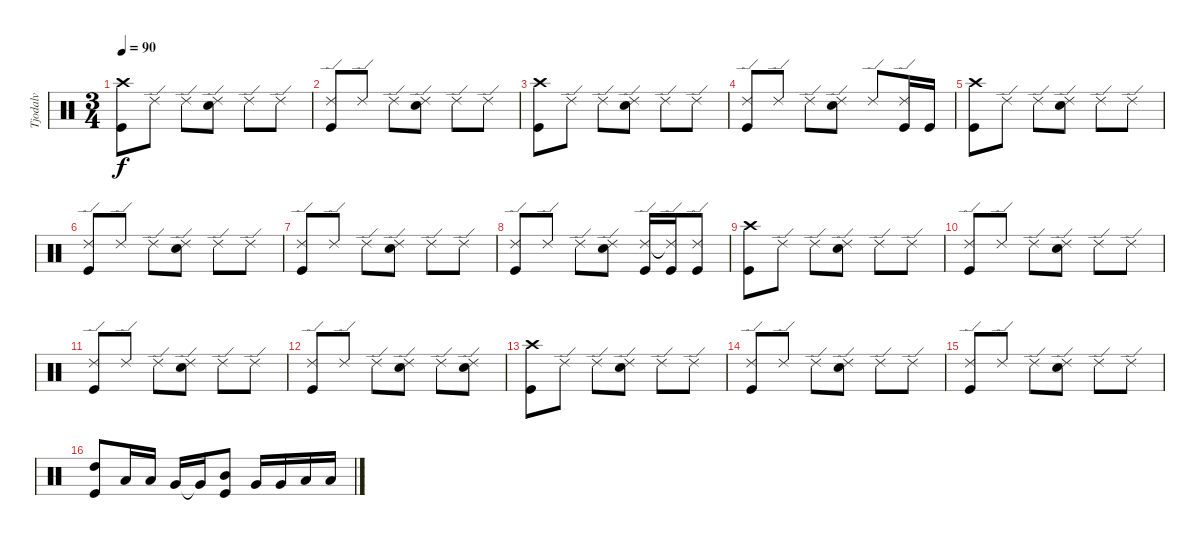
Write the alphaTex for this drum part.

\track ("Tjodalv" "Tjodalv") {instrument percussion}
\staff {score}
\articulation defaults
\ts (3 4)
\tempo 90
\clef neutral
\ks c
("Crash high (hit)" "Kick (hit)").8{dy f} "Ride (edge) 2".8 "Ride (edge) 2".8 ("Ride (edge) 2" "Snare (hit) 2").8 "Ride (edge) 2".8 "Ride (edge) 2".8 |
("Ride (edge) 2" "Kick (hit)").8 "Ride (edge) 2".8 "Ride (edge) 2".8 ("Ride (edge) 2" "Snare (hit) 2").8 "Ride (edge) 2".8 "Ride (edge) 2".8 |
("Crash high (hit)" "Kick (hit)").8 "Ride (edge) 2".8 "Ride (edge) 2".8 ("Ride (edge) 2" "Snare (hit) 2").8 "Ride (edge) 2".8 "Ride (edge) 2".8 |
("Ride (edge) 2" "Kick (hit)").8 "Ride (edge) 2".8 "Ride (edge) 2".8 ("Ride (edge) 2" "Snare (hit) 2").8 "Ride (edge) 2".8 ("Ride (edge) 2" "Kick (hit)").16 "Kick (hit)".16 |
("Crash high (hit)" "Kick (hit)").8 "Ride (edge) 2".8 "Ride (edge) 2".8 ("Ride (edge) 2" "Snare (hit) 2").8 "Ride (edge) 2".8 "Ride (edge) 2".8 |
("Ride (edge) 2" "Kick (hit)").8 "Ride (edge) 2".8 "Ride (edge) 2".8 ("Ride (edge) 2" "Snare (hit) 2").8 "Ride (edge) 2".8 "Ride (edge) 2".8 |
("Ride (edge) 2" "Kick (hit)").8 "Ride (edge) 2".8 "Ride (edge) 2".8 ("Ride (edge) 2" "Snare (hit) 2").8 "Ride (edge) 2".8 "Ride (edge) 2".8 |
("Ride (edge) 2" "Kick (hit)").8 "Ride (edge) 2".8 "Ride (edge) 2".8 ("Ride (edge) 2" "Snare (hit) 2").8 ("Ride (edge) 2" "Kick (hit)").16 ("Ride (edge) 2"{t} "Kick (hit)").16 ("Ride (edge) 2" "Kick (hit)").8 |
("Crash high (hit)" "Kick (hit)").8 "Ride (edge) 2".8 "Ride (edge) 2".8 ("Ride (edge) 2" "Snare (hit) 2").8 "Ride (edge) 2".8 "Ride (edge) 2".8 |
("Ride (edge) 2" "Kick (hit)").8 "Ride (edge) 2".8 "Ride (edge) 2".8 ("Ride (edge) 2" "Snare (hit) 2").8 "Ride (edge) 2".8 "Ride (edge) 2".8 |
("Ride (edge) 2" "Kick (hit)").8 "Ride (edge) 2".8 "Ride (edge) 2".8 ("Ride (edge) 2" "Snare (hit) 2").8 "Ride (edge) 2".8 "Ride (edge) 2".8 |
("Ride (edge) 2" "Kick (hit)").8 "Ride (edge) 2".8 "Ride (edge) 2".8 ("Ride (edge) 2" "Snare (hit) 2").8 "Ride (edge) 2".8 ("Ride (edge) 2" "Snare (hit) 2").8 |
("Crash high (hit)" "Kick (hit)").8 "Ride (edge) 2".8 "Ride (edge) 2".8 ("Ride (edge) 2" "Snare (hit) 2").8 "Ride (edge) 2".8 "Ride (edge) 2".8 |
("Ride (edge) 2" "Kick (hit)").8 "Ride (edge) 2".8 "Ride (edge) 2".8 ("Ride (edge) 2" "Snare (hit) 2").8 "Ride (edge) 2".8 "Ride (edge) 2".8 |
("Ride (edge) 2" "Kick (hit)").8 "Ride (edge) 2".8 "Ride (edge) 2".8 ("Ride (edge) 2" "Snare (hit) 2").8 "Ride (edge) 2".8 "Ride (edge) 2".8 |
("High Tom (hit)" "Kick (hit)").8 "Low Tom (hit)".16 "Low Tom (hit)".16 "Very Low Tom (hit)".16 "Very Low Tom (hit)"{t}.16 ("Mid Tom (hit)" "Kick (hit)").8 "Very Low Tom (hit)".16 "Very Low Tom (hit)".16 "Low Floor Tom (hit)".16 "Low Floor Tom (hit)".16
